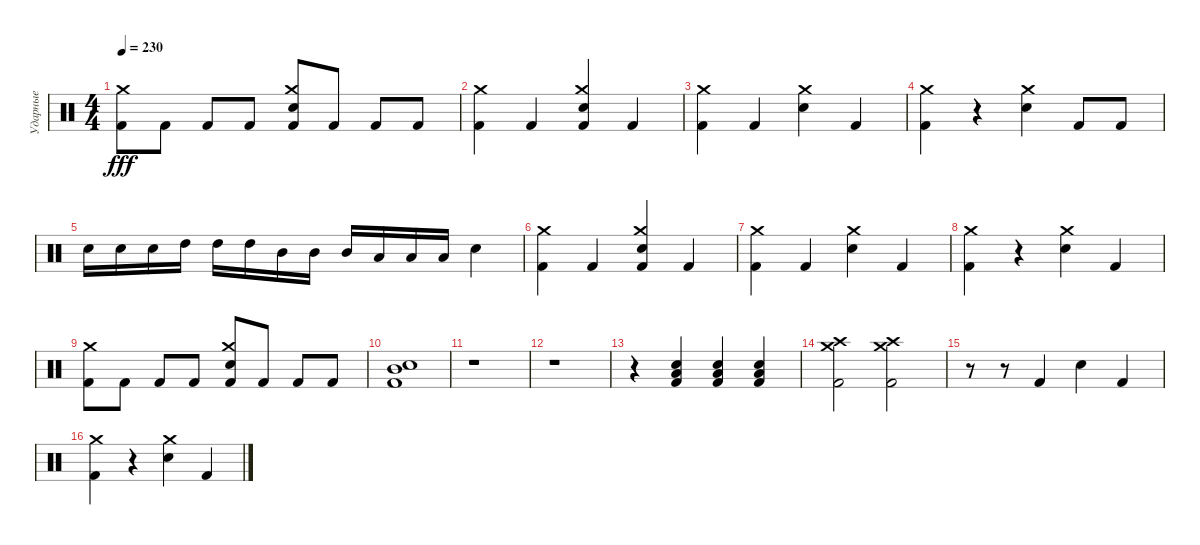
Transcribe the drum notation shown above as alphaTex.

\track ("Ударные" "Ударные") {instrument percussion}
\staff {score}
\articulation defaults
\ts (4 4)
\tempo 230
\clef neutral
\ks c
("Kick (hit) 2" "Crash medium (hit)").8{dy fff} "Kick (hit) 2".8 "Kick (hit) 2".8 "Kick (hit) 2".8 ("Kick (hit) 2" "Electric Snare (hit)" "Crash medium (hit)").8 "Kick (hit) 2".8 "Kick (hit) 2".8 "Kick (hit) 2".8 |
("Kick (hit) 2" "Crash medium (hit)").4 "Kick (hit) 2".4 ("Kick (hit) 2" "Electric Snare (hit)" "Crash medium (hit)").4 "Kick (hit) 2".4 |
("Kick (hit) 2" "Crash medium (hit)").4 "Kick (hit) 2".4 ("Electric Snare (hit)" "Crash medium (hit)").4 "Kick (hit) 2".4 |
("Kick (hit) 2" "Crash medium (hit)").4 r.4 ("Electric Snare (hit)" "Crash medium (hit)").4 "Kick (hit) 2".8 "Kick (hit) 2".8 |
"Electric Snare (hit)".16 "Electric Snare (hit)".16 "Electric Snare (hit)".16 "High Tom (hit)".16 "High Tom (hit)".16 "High Tom (hit)".16 "Mid Tom (hit)".16 "Mid Tom (hit)".16 "Mid Tom (hit)".16 "Low Tom (hit)".16 "Low Tom (hit)".16 "Low Tom (hit)".16 "Electric Snare (hit)".4 |
("Kick (hit) 2" "Crash medium (hit)").4 "Kick (hit) 2".4 ("Kick (hit) 2" "Electric Snare (hit)" "Crash medium (hit)").4 "Kick (hit) 2".4 |
("Kick (hit) 2" "Crash medium (hit)").4 "Kick (hit) 2".4 ("Electric Snare (hit)" "Crash medium (hit)").4 "Kick (hit) 2".4 |
("Kick (hit) 2" "Crash medium (hit)").4 r.4 ("Electric Snare (hit)" "Crash medium (hit)").4 "Kick (hit) 2".4 |
("Kick (hit) 2" "Crash medium (hit)").8 "Kick (hit) 2".8 "Kick (hit) 2".8 "Kick (hit) 2".8 ("Kick (hit) 2" "Electric Snare (hit)" "Crash medium (hit)").8 "Kick (hit) 2".8 "Kick (hit) 2".8 "Kick (hit) 2".8 |
("Kick (hit) 2" "Electric Snare (hit)" "Mid Tom (hit)").1 |
r.1 |
r.1 |
r.4 ("Kick (hit) 2" "Electric Snare (hit)" "Low Tom (hit)").4 ("Kick (hit) 2" "Electric Snare (hit)" "Low Tom (hit)").4 ("Kick (hit) 2" "Electric Snare (hit)" "Low Tom (hit)").4 |
("Kick (hit) 2" "Crash high (hit)" "Crash medium (hit)").2 ("Kick (hit) 2" "Crash high (hit)" "Crash medium (hit)").2 |
r.8 r.8 "Kick (hit) 2".4 "Electric Snare (hit)".4 "Kick (hit) 2".4 |
("Kick (hit) 2" "Crash medium (hit)").4 r.4 ("Electric Snare (hit)" "Crash medium (hit)").4 "Kick (hit) 2".4
